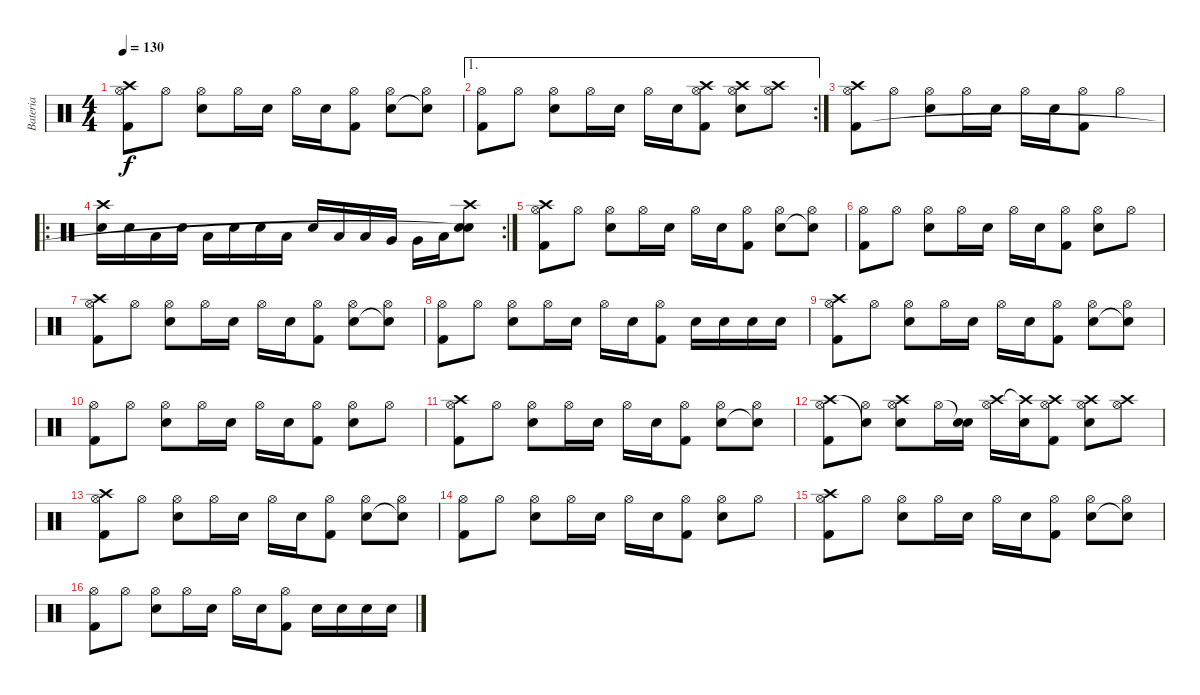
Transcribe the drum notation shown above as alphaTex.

\track ("Bateria" "Bateria") {instrument percussion}
\staff {score}
\articulation defaults
\ts (4 4)
\tempo 130
\clef neutral
\ks c
("Hi-Hat (open)" "Crash high (hit)" "Kick (hit) 2").8{dy f} "Hi-Hat (open)".8 ("Hi-Hat (open)" "Snare (hit) 2").8 "Hi-Hat (open)".16 "Snare (hit) 2".16 "Hi-Hat (open)".16 "Snare (hit) 2".16 ("Hi-Hat (open)" "Kick (hit) 2").8 ("Hi-Hat (open)" "Snare (hit) 2").8 ("Hi-Hat (open)" "Snare (hit)"{t}).8 |
\ae 1
\rc 2
("Hi-Hat (open)" "Kick (hit) 2").8 "Hi-Hat (open)".8 ("Hi-Hat (open)" "Snare (hit) 2").8 "Hi-Hat (open)".16 "Snare (hit) 2".16 "Hi-Hat (open)".16 "Snare (hit) 2".16 ("Hi-Hat (open)" "Crash high (hit)" "Kick (hit) 2").8 ("Hi-Hat (open)" "Crash high (hit)" "Snare (hit) 2").8 ("Hi-Hat (open)" "Crash high (hit)").8 |
("Hi-Hat (open)" "Crash high (hit)" "Kick (hit) 2").8 "Hi-Hat (open)".8 ("Hi-Hat (open)" "Snare (hit) 2").8 "Hi-Hat (open)".16 "Snare (hit) 2".16 "Hi-Hat (open)".16 "Snare (hit) 2".16 ("Hi-Hat (open)" "Kick (hit) 2").8 "Hi-Hat (open)".4 |
\ro
\rc 2
("Snare (hit) 2" "Crash high (hit)").16 "Snare (hit) 2".16 "Low Tom (hit)".16 "Snare (hit) 2".16 "Low Tom (hit)".16 "Snare (hit) 2".16 "Snare (hit) 2".16 "Low Tom (hit)".16 "Snare (hit) 2".16 "Low Tom (hit)".16 "Low Tom (hit)".16 "Very Low Tom (hit)".16 "Very Low Tom (hit)".16 "Low Floor Tom (hit)".16 ("Crash high (hit)" "Snare (hit) 2" "Snare (hit)"{t}).8 |
("Hi-Hat (open)" "Crash high (hit)" "Kick (hit) 2").8 "Hi-Hat (open)".8 ("Hi-Hat (open)" "Snare (hit) 2").8 "Hi-Hat (open)".16 "Snare (hit) 2".16 "Hi-Hat (open)".16 "Snare (hit) 2".16 ("Hi-Hat (open)" "Kick (hit) 2").8 ("Hi-Hat (open)" "Snare (hit) 2").8 ("Hi-Hat (open)" "Snare (hit)"{t}).8 |
("Hi-Hat (open)" "Kick (hit) 2").8 "Hi-Hat (open)".8 ("Hi-Hat (open)" "Snare (hit) 2").8 "Hi-Hat (open)".16 "Snare (hit) 2".16 "Hi-Hat (open)".16 "Snare (hit) 2".16 ("Hi-Hat (open)" "Kick (hit) 2").8 ("Hi-Hat (open)" "Snare (hit) 2").8 "Hi-Hat (open)".8 |
("Hi-Hat (open)" "Crash high (hit)" "Kick (hit) 2").8 "Hi-Hat (open)".8 ("Hi-Hat (open)" "Snare (hit) 2").8 "Hi-Hat (open)".16 "Snare (hit) 2".16 "Hi-Hat (open)".16 "Snare (hit) 2".16 ("Hi-Hat (open)" "Kick (hit) 2").8 ("Hi-Hat (open)" "Snare (hit) 2").8 ("Hi-Hat (open)" "Snare (hit)"{t}).8 |
("Hi-Hat (open)" "Kick (hit) 2").8 "Hi-Hat (open)".8 ("Hi-Hat (open)" "Snare (hit) 2").8 "Hi-Hat (open)".16 "Snare (hit) 2".16 "Hi-Hat (open)".16 "Snare (hit) 2".16 ("Hi-Hat (open)" "Kick (hit) 2").8 "Snare (hit) 2".16 "Snare (hit) 2".16 "Snare (hit) 2".16 "Snare (hit) 2".16 |
("Hi-Hat (open)" "Crash high (hit)" "Kick (hit) 2").8 "Hi-Hat (open)".8 ("Hi-Hat (open)" "Snare (hit) 2").8 "Hi-Hat (open)".16 "Snare (hit) 2".16 "Hi-Hat (open)".16 "Snare (hit) 2".16 ("Hi-Hat (open)" "Kick (hit) 2").8 ("Hi-Hat (open)" "Snare (hit) 2").8 ("Hi-Hat (open)" "Snare (hit)"{t}).8 |
("Hi-Hat (open)" "Kick (hit) 2").8 "Hi-Hat (open)".8 ("Hi-Hat (open)" "Snare (hit) 2").8 "Hi-Hat (open)".16 "Snare (hit) 2".16 "Hi-Hat (open)".16 "Snare (hit) 2".16 ("Hi-Hat (open)" "Kick (hit) 2").8 ("Hi-Hat (open)" "Snare (hit) 2").8 "Hi-Hat (open)".8 |
("Hi-Hat (open)" "Crash high (hit)" "Kick (hit) 2").8 "Hi-Hat (open)".8 ("Hi-Hat (open)" "Snare (hit) 2").8 "Hi-Hat (open)".16 "Snare (hit) 2".16 "Hi-Hat (open)".16 "Snare (hit) 2".16 ("Hi-Hat (open)" "Kick (hit) 2").8 ("Hi-Hat (open)" "Snare (hit) 2").8 ("Hi-Hat (open)" "Snare (hit)"{t}).8 |
("Hi-Hat (open)" "Crash high (hit)" "Kick (hit) 2").8 ("Hi-Hat (open)" "Snare (hit)"{t}).8 ("Hi-Hat (open)" "Crash high (hit)" "Snare (hit) 2").8 "Hi-Hat (open)".16 ("Snare (hit)"{t} "Snare (hit) 2").16 ("Hi-Hat (open)" "Crash high (hit)").16 ("Crash high (hit)"{t} "Snare (hit) 2").16 ("Hi-Hat (open)" "Crash high (hit)" "Kick (hit) 2").8 ("Hi-Hat (open)" "Crash high (hit)" "Snare (hit) 2").8 ("Hi-Hat (open)" "Crash high (hit)").8 |
("Hi-Hat (open)" "Crash high (hit)" "Kick (hit) 2").8 "Hi-Hat (open)".8 ("Hi-Hat (open)" "Snare (hit) 2").8 "Hi-Hat (open)".16 "Snare (hit) 2".16 "Hi-Hat (open)".16 "Snare (hit) 2".16 ("Hi-Hat (open)" "Kick (hit) 2").8 ("Hi-Hat (open)" "Snare (hit) 2").8 ("Hi-Hat (open)" "Snare (hit)"{t}).8 |
("Hi-Hat (open)" "Kick (hit) 2").8 "Hi-Hat (open)".8 ("Hi-Hat (open)" "Snare (hit) 2").8 "Hi-Hat (open)".16 "Snare (hit) 2".16 "Hi-Hat (open)".16 "Snare (hit) 2".16 ("Hi-Hat (open)" "Kick (hit) 2").8 ("Hi-Hat (open)" "Snare (hit) 2").8 "Hi-Hat (open)".8 |
("Hi-Hat (open)" "Crash high (hit)" "Kick (hit) 2").8 "Hi-Hat (open)".8 ("Hi-Hat (open)" "Snare (hit) 2").8 "Hi-Hat (open)".16 "Snare (hit) 2".16 "Hi-Hat (open)".16 "Snare (hit) 2".16 ("Hi-Hat (open)" "Kick (hit) 2").8 ("Hi-Hat (open)" "Snare (hit) 2").8 ("Hi-Hat (open)" "Snare (hit)"{t}).8 |
("Hi-Hat (open)" "Kick (hit) 2").8 "Hi-Hat (open)".8 ("Hi-Hat (open)" "Snare (hit) 2").8 "Hi-Hat (open)".16 "Snare (hit) 2".16 "Hi-Hat (open)".16 "Snare (hit) 2".16 ("Hi-Hat (open)" "Kick (hit) 2").8 "Snare (hit) 2".16 "Snare (hit) 2".16 "Snare (hit) 2".16 "Snare (hit) 2".16
